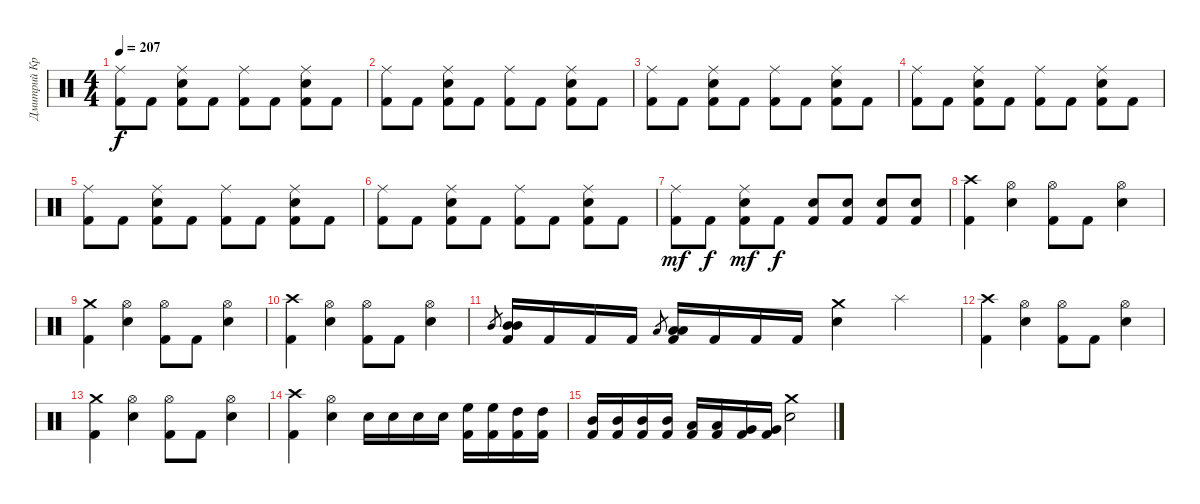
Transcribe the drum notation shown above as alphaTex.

\track ("Дмитрий Кривенков" "Дмитрий Кр") {instrument percussion}
\staff {score}
\articulation defaults
\ts (4 4)
\tempo 207
\clef neutral
\ks c
("Ride (middle)" "Kick (hit) 2").8{dy f} "Kick (hit) 2".8 ("Ride (middle)" "Electric Snare (hit)" "Kick (hit) 2").8 "Kick (hit) 2".8 ("Ride (middle)" "Kick (hit) 2").8 "Kick (hit) 2".8 ("Ride (middle)" "Electric Snare (hit)" "Kick (hit) 2").8 "Kick (hit) 2".8 |
("Ride (middle)" "Kick (hit) 2").8 "Kick (hit) 2".8 ("Ride (middle)" "Electric Snare (hit)" "Kick (hit) 2").8 "Kick (hit) 2".8 ("Ride (middle)" "Kick (hit) 2").8 "Kick (hit) 2".8 ("Ride (middle)" "Electric Snare (hit)" "Kick (hit) 2").8 "Kick (hit) 2".8 |
("Ride (middle)" "Kick (hit) 2").8 "Kick (hit) 2".8 ("Ride (middle)" "Electric Snare (hit)" "Kick (hit) 2").8 "Kick (hit) 2".8 ("Ride (middle)" "Kick (hit) 2").8 "Kick (hit) 2".8 ("Ride (middle)" "Electric Snare (hit)" "Kick (hit) 2").8 "Kick (hit) 2".8 |
("Ride (middle)" "Kick (hit) 2").8 "Kick (hit) 2".8 ("Ride (middle)" "Electric Snare (hit)" "Kick (hit) 2").8 "Kick (hit) 2".8 ("Ride (middle)" "Kick (hit) 2").8 "Kick (hit) 2".8 ("Ride (middle)" "Electric Snare (hit)" "Kick (hit) 2").8 "Kick (hit) 2".8 |
("Ride (middle)" "Kick (hit) 2").8 "Kick (hit) 2".8 ("Ride (middle)" "Electric Snare (hit)" "Kick (hit) 2").8 "Kick (hit) 2".8 ("Ride (middle)" "Kick (hit) 2").8 "Kick (hit) 2".8 ("Ride (middle)" "Electric Snare (hit)" "Kick (hit) 2").8 "Kick (hit) 2".8 |
("Ride (middle)" "Kick (hit) 2").8 "Kick (hit) 2".8 ("Ride (middle)" "Electric Snare (hit)" "Kick (hit) 2").8 "Kick (hit) 2".8 ("Ride (middle)" "Kick (hit) 2").8 "Kick (hit) 2".8 ("Ride (middle)" "Electric Snare (hit)" "Kick (hit) 2").8 "Kick (hit) 2".8 |
("Ride (middle)" "Kick (hit) 2").8{dy mf} "Kick (hit) 2".8{dy f} ("Ride (middle)" "Electric Snare (hit)" "Kick (hit) 2").8{dy mf} "Kick (hit) 2".8{dy f} ("Electric Snare (hit)" "Kick (hit) 2").8 ("Electric Snare (hit)" "Kick (hit) 2").8 ("Electric Snare (hit)" "Kick (hit) 2").8 ("Electric Snare (hit)" "Kick (hit) 2").8 |
("Crash high (hit)" "Kick (hit) 2").4 ("Hi-Hat (open)" "Electric Snare (hit)").4 ("Hi-Hat (open)" "Kick (hit) 2").8 "Kick (hit) 2".8 ("Hi-Hat (open)" "Electric Snare (hit)").4 |
("Crash medium (hit)" "Kick (hit) 2").4 ("Hi-Hat (open)" "Electric Snare (hit)").4 ("Hi-Hat (open)" "Kick (hit) 2").8 "Kick (hit) 2".8 ("Hi-Hat (open)" "Electric Snare (hit)").4 |
("Crash high (hit)" "Kick (hit) 2").4 ("Hi-Hat (open)" "Electric Snare (hit)").4 ("Hi-Hat (open)" "Kick (hit) 2").8 "Kick (hit) 2".8 ("Hi-Hat (open)" "Electric Snare (hit)").4 |
"Mid Tom (hit)".8{gr} ("Mid Tom (hit)" "Mid Tom (hit)" "Kick (hit) 2").16 "Kick (hit) 2".16 "Kick (hit) 2".16 "Kick (hit) 2".16 "Low Tom (hit)".8{gr} ("Low Tom (hit)" "Low Tom (hit)" "Kick (hit) 2").16 "Kick (hit) 2".16 "Kick (hit) 2".16 "Kick (hit) 2".16 ("Crash medium (hit)" "Electric Snare (hit)").4 "Splash (hit)".4 |
("Crash high (hit)" "Kick (hit) 2").4 ("Hi-Hat (open)" "Electric Snare (hit)").4 ("Hi-Hat (open)" "Kick (hit) 2").8 "Kick (hit) 2".8 ("Hi-Hat (open)" "Electric Snare (hit)").4 |
("Crash medium (hit)" "Kick (hit) 2").4 ("Hi-Hat (open)" "Electric Snare (hit)").4 ("Hi-Hat (open)" "Kick (hit) 2").8 "Kick (hit) 2".8 ("Hi-Hat (open)" "Electric Snare (hit)").4 |
("Crash high (hit)" "Kick (hit) 2").4 ("Hi-Hat (open)" "Electric Snare (hit)").4 "Electric Snare (hit)".16 "Electric Snare (hit)".16 "Electric Snare (hit)".16 "Electric Snare (hit)".16 ("High Floor Tom (hit)" "Kick (hit) 2").16 ("High Floor Tom (hit)" "Kick (hit) 2").16 ("High Tom (hit)" "Kick (hit) 2").16 ("High Tom (hit)" "Kick (hit) 2").16 |
("Mid Tom (hit)" "Kick (hit) 2").16 ("Mid Tom (hit)" "Kick (hit) 2").16 ("Mid Tom (hit)" "Kick (hit) 2").16 ("Mid Tom (hit)" "Kick (hit) 2").16 ("Low Tom (hit)" "Kick (hit) 2").16 ("Low Tom (hit)" "Kick (hit) 2").16 ("Very Low Tom (hit)" "Kick (hit) 2").16 ("Very Low Tom (hit)" "Kick (hit) 2").16 ("Crash medium (hit)" "Electric Snare (hit)").2
